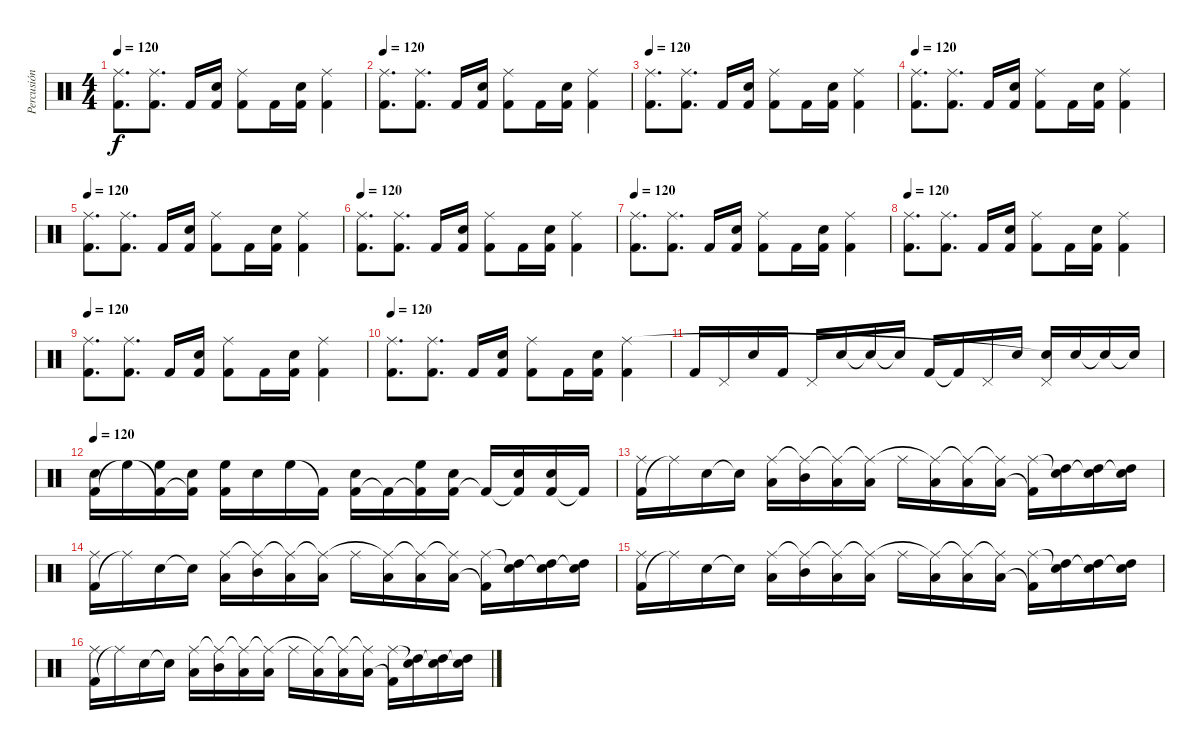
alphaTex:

\track ("Percusión" "Percusión") {instrument percussion}
\staff {score}
\articulation defaults
\ts (4 4)
\tempo 120
\clef neutral
\ks c
("Kick (hit) 2" "Ride (middle)").8{d dy f} ("Kick (hit) 2" "Ride (middle)").8{d} "Kick (hit) 2".16 ("Kick (hit) 2" "Snare (hit) 2").16 ("Kick (hit) 2" "Ride (middle)").8 "Kick (hit) 2".16 ("Kick (hit) 2" "Snare (hit) 2").16 ("Kick (hit) 2" "Ride (middle)").4 |
\tempo 120
("Kick (hit) 2" "Ride (middle)").8{d} ("Kick (hit) 2" "Ride (middle)").8{d} "Kick (hit) 2".16 ("Kick (hit) 2" "Snare (hit) 2").16 ("Kick (hit) 2" "Ride (middle)").8 "Kick (hit) 2".16 ("Kick (hit) 2" "Snare (hit) 2").16 ("Kick (hit) 2" "Ride (middle)").4 |
\tempo 120
("Kick (hit) 2" "Ride (middle)").8{d} ("Kick (hit) 2" "Ride (middle)").8{d} "Kick (hit) 2".16 ("Kick (hit) 2" "Snare (hit) 2").16 ("Kick (hit) 2" "Ride (middle)").8 "Kick (hit) 2".16 ("Kick (hit) 2" "Snare (hit) 2").16 ("Kick (hit) 2" "Ride (middle)").4 |
\tempo 120
("Kick (hit) 2" "Ride (middle)").8{d} ("Kick (hit) 2" "Ride (middle)").8{d} "Kick (hit) 2".16 ("Kick (hit) 2" "Snare (hit) 2").16 ("Kick (hit) 2" "Ride (middle)").8 "Kick (hit) 2".16 ("Kick (hit) 2" "Snare (hit) 2").16 ("Kick (hit) 2" "Ride (middle)").4 |
\tempo 120
("Kick (hit) 2" "Ride (middle)").8{d} ("Kick (hit) 2" "Ride (middle)").8{d} "Kick (hit) 2".16 ("Kick (hit) 2" "Snare (hit) 2").16 ("Kick (hit) 2" "Ride (middle)").8 "Kick (hit) 2".16 ("Kick (hit) 2" "Snare (hit) 2").16 ("Kick (hit) 2" "Ride (middle)").4 |
\tempo 120
("Kick (hit) 2" "Ride (middle)").8{d} ("Kick (hit) 2" "Ride (middle)").8{d} "Kick (hit) 2".16 ("Kick (hit) 2" "Snare (hit) 2").16 ("Kick (hit) 2" "Ride (middle)").8 "Kick (hit) 2".16 ("Kick (hit) 2" "Snare (hit) 2").16 ("Kick (hit) 2" "Ride (middle)").4 |
\tempo 120
("Kick (hit) 2" "Ride (middle)").8{d} ("Kick (hit) 2" "Ride (middle)").8{d} "Kick (hit) 2".16 ("Kick (hit) 2" "Snare (hit) 2").16 ("Kick (hit) 2" "Ride (middle)").8 "Kick (hit) 2".16 ("Kick (hit) 2" "Snare (hit) 2").16 ("Kick (hit) 2" "Ride (middle)").4 |
\tempo 120
("Kick (hit) 2" "Ride (middle)").8{d} ("Kick (hit) 2" "Ride (middle)").8{d} "Kick (hit) 2".16 ("Kick (hit) 2" "Snare (hit) 2").16 ("Kick (hit) 2" "Ride (middle)").8 "Kick (hit) 2".16 ("Kick (hit) 2" "Snare (hit) 2").16 ("Kick (hit) 2" "Ride (middle)").4 |
\tempo 120
("Kick (hit) 2" "Ride (middle)").8{d} ("Kick (hit) 2" "Ride (middle)").8{d} "Kick (hit) 2".16 ("Kick (hit) 2" "Snare (hit) 2").16 ("Kick (hit) 2" "Ride (middle)").8 "Kick (hit) 2".16 ("Kick (hit) 2" "Snare (hit) 2").16 ("Kick (hit) 2" "Ride (middle)").4 |
\tempo 120
("Kick (hit) 2" "Ride (middle)").8{d} ("Kick (hit) 2" "Ride (middle)").8{d} "Kick (hit) 2".16 ("Kick (hit) 2" "Snare (hit) 2").16 ("Kick (hit) 2" "Ride (middle)").8 "Kick (hit) 2".16 ("Kick (hit) 2" "Snare (hit) 2").16 ("Kick (hit) 2" "Ride (middle)").4 |
"Kick (hit) 2".16 "Pedal Hi-Hat (hit)".16 "Snare (hit) 2".16 "Kick (hit) 2".16 "Pedal Hi-Hat (hit)".16 "Snare (hit) 2".16 "Snare (hit)"{t}.16 "Snare (hit)"{t}.16 "Kick (hit) 2".16 "Kick (hit) 2"{t}.16 "Pedal Hi-Hat (hit)".16 "Snare (hit) 2".16 ("Pedal Hi-Hat (hit)" "Snare (hit) 2"{t}).16 "Snare (hit) 2".16 "Snare (hit) 2"{t}.16 "Snare (hit)"{t}.16 |
\tempo 120
("Kick (hit) 2" "Snare (hit) 2").16 "High Floor Tom (hit)"{t}.16 ("Kick (hit) 2"{t} "High Floor Tom (hit)").16 ("Kick (hit) 2"{t} "Snare (hit) 2").16 ("Kick (hit) 2" "High Floor Tom (hit)").16 "Snare (hit) 2".16 "High Floor Tom (hit)".16 "Kick (hit) 2"{t}.16 ("Kick (hit) 2" "Snare (hit) 2").16 "Kick (hit) 2"{t}.16 ("Kick (hit) 2"{t} "High Floor Tom (hit)").16 ("Kick (hit) 2" "Snare (hit) 2").16 "Kick (hit) 2"{t}.16 ("Kick (hit) 2"{t} "Snare (hit) 2").16 ("Kick (hit) 2" "Snare (hit) 2").16 "Kick (hit) 2"{t}.16 |
("Kick (hit) 2" "Ride (middle)").16 "Ride (middle)"{t}.16 "Snare (hit) 2".16 "Snare (hit)"{t}.16 ("Low Tom (hit)" "Ride (middle)").16 ("Mid Tom (hit)" "Ride (middle)"{t}).16 ("Low Tom (hit)" "Ride (middle)"{t}).16 ("Low Tom (hit)" "Ride (middle)"{t}).16 "Ride (middle)".16 ("Low Tom (hit)" "Ride (middle)"{t}).16 ("Low Tom (hit)" "Ride (middle)"{t}).16 ("Low Tom (hit)" "Ride (middle)"{t}).16 ("Kick (hit) 2"{t} "Ride (middle)").16 ("High Tom (hit)" "Snare (hit)"{t}).16 ("High Tom (hit)" "Snare (hit)"{t}).16 ("High Tom (hit)" "Snare (hit)"{t}).16 |
("Kick (hit) 2" "Ride (middle)").16 "Ride (middle)"{t}.16 "Snare (hit) 2".16 "Snare (hit)"{t}.16 ("Low Tom (hit)" "Ride (middle)").16 ("Mid Tom (hit)" "Ride (middle)"{t}).16 ("Low Tom (hit)" "Ride (middle)"{t}).16 ("Low Tom (hit)" "Ride (middle)"{t}).16 "Ride (middle)".16 ("Low Tom (hit)" "Ride (middle)"{t}).16 ("Low Tom (hit)" "Ride (middle)"{t}).16 ("Low Tom (hit)" "Ride (middle)"{t}).16 ("Kick (hit) 2"{t} "Ride (middle)").16 ("High Tom (hit)" "Snare (hit)"{t}).16 ("High Tom (hit)" "Snare (hit)"{t}).16 ("High Tom (hit)" "Snare (hit)"{t}).16 |
("Kick (hit) 2" "Ride (middle)").16 "Ride (middle)"{t}.16 "Snare (hit) 2".16 "Snare (hit)"{t}.16 ("Low Tom (hit)" "Ride (middle)").16 ("Mid Tom (hit)" "Ride (middle)"{t}).16 ("Low Tom (hit)" "Ride (middle)"{t}).16 ("Low Tom (hit)" "Ride (middle)"{t}).16 "Ride (middle)".16 ("Low Tom (hit)" "Ride (middle)"{t}).16 ("Low Tom (hit)" "Ride (middle)"{t}).16 ("Low Tom (hit)" "Ride (middle)"{t}).16 ("Kick (hit) 2"{t} "Ride (middle)").16 ("High Tom (hit)" "Snare (hit)"{t}).16 ("High Tom (hit)" "Snare (hit)"{t}).16 ("High Tom (hit)" "Snare (hit)"{t}).16 |
("Kick (hit) 2" "Ride (middle)").16 "Ride (middle)"{t}.16 "Snare (hit) 2".16 "Snare (hit)"{t}.16 ("Low Tom (hit)" "Ride (middle)").16 ("Mid Tom (hit)" "Ride (middle)"{t}).16 ("Low Tom (hit)" "Ride (middle)"{t}).16 ("Low Tom (hit)" "Ride (middle)"{t}).16 "Ride (middle)".16 ("Low Tom (hit)" "Ride (middle)"{t}).16 ("Low Tom (hit)" "Ride (middle)"{t}).16 ("Low Tom (hit)" "Ride (middle)"{t}).16 ("Kick (hit) 2"{t} "Ride (middle)").16 ("High Tom (hit)" "Snare (hit)"{t}).16 ("High Tom (hit)" "Snare (hit)"{t}).16 ("High Tom (hit)" "Snare (hit)"{t}).16
